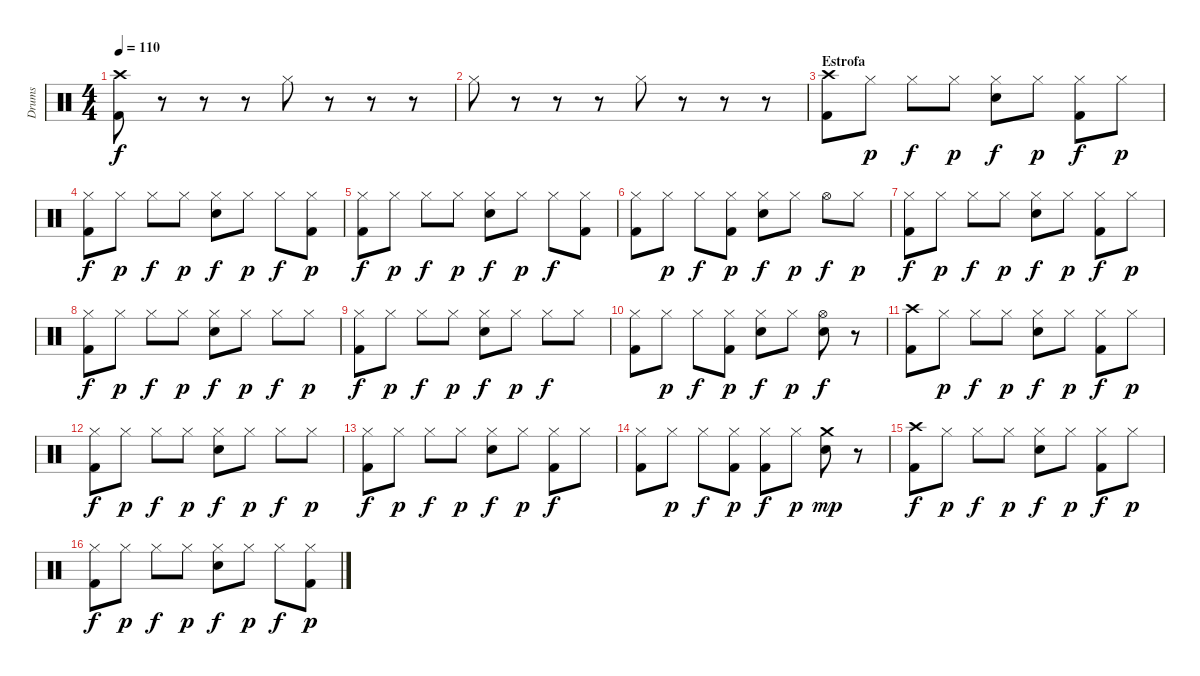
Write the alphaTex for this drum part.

\track ("Drums" "Drums") {instrument percussion}
\staff {score}
\articulation defaults
\ts (4 4)
\tempo 110
\clef neutral
\ks c
("Crash high (hit)" "Kick (hit) 2").8{dy f} r.8 r.8 r.8 "Hi-Hat (closed)".8 r.8 r.8 r.8 |
"Hi-Hat (closed)".8 r.8 r.8 r.8 "Hi-Hat (closed)".8 r.8 r.8 r.8 |
\section ("" "Estrofa")
("Crash high (hit)" "Kick (hit) 2").8 "Hi-Hat (closed)".8{dy p} "Hi-Hat (closed)".8{dy f} "Hi-Hat (closed)".8{dy p} ("Hi-Hat (closed)" "Snare (hit) 2").8{dy f} "Hi-Hat (closed)".8{dy p} ("Hi-Hat (closed)" "Kick (hit) 2").8{dy f} "Hi-Hat (closed)".8{dy p} |
("Hi-Hat (closed)" "Kick (hit) 2").8{dy f} "Hi-Hat (closed)".8{dy p} "Hi-Hat (closed)".8{dy f} "Hi-Hat (closed)".8{dy p} ("Hi-Hat (closed)" "Snare (hit) 2").8{dy f} "Hi-Hat (closed)".8{dy p} "Hi-Hat (closed)".8{dy f} ("Hi-Hat (closed)" "Kick (hit) 2").8{dy p} |
("Hi-Hat (closed)" "Kick (hit) 2").8{dy f} "Hi-Hat (closed)".8{dy p} "Hi-Hat (closed)".8{dy f} "Hi-Hat (closed)".8{dy p} ("Hi-Hat (closed)" "Snare (hit) 2").8{dy f} "Hi-Hat (closed)".8{dy p} "Hi-Hat (closed)".8{dy f} ("Hi-Hat (closed)" "Kick (hit) 2").8 |
("Hi-Hat (closed)" "Kick (hit) 2").8 "Hi-Hat (closed)".8{dy p} "Hi-Hat (closed)".8{dy f} ("Hi-Hat (closed)" "Kick (hit) 2").8{dy p} ("Hi-Hat (closed)" "Snare (hit) 2").8{dy f} "Hi-Hat (closed)".8{dy p} "Hi-Hat (open)".8{dy f} "Hi-Hat (closed)".8{dy p} |
("Hi-Hat (closed)" "Kick (hit) 2").8{dy f} "Hi-Hat (closed)".8{dy p} "Hi-Hat (closed)".8{dy f} "Hi-Hat (closed)".8{dy p} ("Hi-Hat (closed)" "Snare (hit) 2").8{dy f} "Hi-Hat (closed)".8{dy p} ("Hi-Hat (closed)" "Kick (hit) 2").8{dy f} "Hi-Hat (closed)".8{dy p} |
("Hi-Hat (closed)" "Kick (hit) 2").8{dy f} "Hi-Hat (closed)".8{dy p} "Hi-Hat (closed)".8{dy f} "Hi-Hat (closed)".8{dy p} ("Hi-Hat (closed)" "Snare (hit) 2").8{dy f} "Hi-Hat (closed)".8{dy p} "Hi-Hat (closed)".8{dy f} "Hi-Hat (closed)".8{dy p} |
("Hi-Hat (closed)" "Kick (hit) 2").8{dy f} "Hi-Hat (closed)".8{dy p} "Hi-Hat (closed)".8{dy f} "Hi-Hat (closed)".8{dy p} ("Hi-Hat (closed)" "Snare (hit) 2").8{dy f} "Hi-Hat (closed)".8{dy p} "Hi-Hat (closed)".8{dy f} "Hi-Hat (closed)".8 |
("Hi-Hat (closed)" "Kick (hit) 2").8 "Hi-Hat (closed)".8{dy p} "Hi-Hat (closed)".8{dy f} ("Hi-Hat (closed)" "Kick (hit) 2").8{dy p} ("Hi-Hat (closed)" "Snare (hit) 2").8{dy f} "Hi-Hat (closed)".8{dy p} ("Hi-Hat (open)" "Snare (hit) 2").8{dy f} r.8 |
("Crash high (hit)" "Kick (hit) 2").8 "Hi-Hat (closed)".8{dy p} "Hi-Hat (closed)".8{dy f} "Hi-Hat (closed)".8{dy p} ("Hi-Hat (closed)" "Snare (hit) 2").8{dy f} "Hi-Hat (closed)".8{dy p} ("Hi-Hat (closed)" "Kick (hit) 2").8{dy f} "Hi-Hat (closed)".8{dy p} |
("Hi-Hat (closed)" "Kick (hit) 2").8{dy f} "Hi-Hat (closed)".8{dy p} "Hi-Hat (closed)".8{dy f} "Hi-Hat (closed)".8{dy p} ("Hi-Hat (closed)" "Snare (hit) 2").8{dy f} "Hi-Hat (closed)".8{dy p} "Hi-Hat (closed)".8{dy f} "Hi-Hat (closed)".8{dy p} |
("Hi-Hat (closed)" "Kick (hit) 2").8{dy f} "Hi-Hat (closed)".8{dy p} "Hi-Hat (closed)".8{dy f} "Hi-Hat (closed)".8{dy p} ("Hi-Hat (closed)" "Snare (hit) 2").8{dy f} "Hi-Hat (closed)".8{dy p} ("Hi-Hat (closed)" "Kick (hit) 2").8{dy f} "Hi-Hat (closed)".8 |
("Hi-Hat (closed)" "Kick (hit) 2").8 "Hi-Hat (closed)".8{dy p} "Hi-Hat (closed)".8{dy f} ("Hi-Hat (closed)" "Kick (hit) 2").8{dy p} ("Hi-Hat (closed)" "Kick (hit) 2").8{dy f} "Hi-Hat (closed)".8{dy p} ("Crash medium (hit)" "Snare (hit) 2").8{dy mp} r.8 |
("Crash high (hit)" "Kick (hit) 2").8{dy f} "Hi-Hat (closed)".8{dy p} "Hi-Hat (closed)".8{dy f} "Hi-Hat (closed)".8{dy p} ("Hi-Hat (closed)" "Snare (hit) 2").8{dy f} "Hi-Hat (closed)".8{dy p} ("Hi-Hat (closed)" "Kick (hit) 2").8{dy f} "Hi-Hat (closed)".8{dy p} |
("Hi-Hat (closed)" "Kick (hit) 2").8{dy f} "Hi-Hat (closed)".8{dy p} "Hi-Hat (closed)".8{dy f} "Hi-Hat (closed)".8{dy p} ("Hi-Hat (closed)" "Snare (hit) 2").8{dy f} "Hi-Hat (closed)".8{dy p} "Hi-Hat (closed)".8{dy f} ("Hi-Hat (closed)" "Kick (hit) 2").8{dy p}
